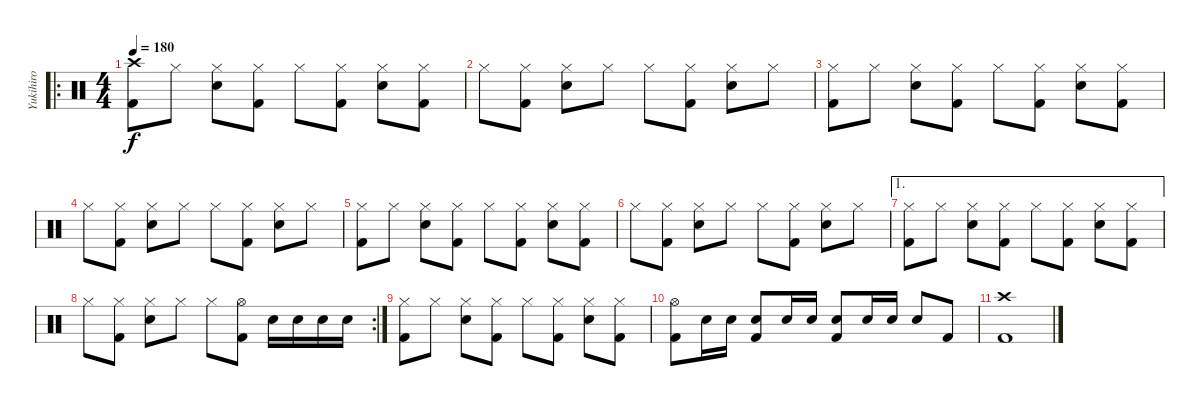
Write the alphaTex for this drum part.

\track ("Yukihiro" "Yukihiro") {instrument percussion}
\staff {score}
\articulation defaults
\ro
\ts (4 4)
\tempo 180
\clef neutral
\ks c
("Crash high (hit)" "Kick (hit) 2").8{dy f} "Hi-Hat (closed)".8 ("Hi-Hat (closed)" "Electric Snare (hit)").8 ("Hi-Hat (closed)" "Kick (hit) 2").8 "Hi-Hat (closed)".8 ("Hi-Hat (closed)" "Kick (hit) 2").8 ("Hi-Hat (closed)" "Electric Snare (hit)").8 ("Hi-Hat (closed)" "Kick (hit) 2").8 |
"Hi-Hat (closed)".8 ("Hi-Hat (closed)" "Kick (hit) 2").8 ("Hi-Hat (closed)" "Electric Snare (hit)").8 "Hi-Hat (closed)".8 "Hi-Hat (closed)".8 ("Hi-Hat (closed)" "Kick (hit) 2").8 ("Hi-Hat (closed)" "Electric Snare (hit)").8 "Hi-Hat (closed)".8 |
("Hi-Hat (closed)" "Kick (hit) 2").8 "Hi-Hat (closed)".8 ("Hi-Hat (closed)" "Electric Snare (hit)").8 ("Hi-Hat (closed)" "Kick (hit) 2").8 "Hi-Hat (closed)".8 ("Hi-Hat (closed)" "Kick (hit) 2").8 ("Hi-Hat (closed)" "Electric Snare (hit)").8 ("Hi-Hat (closed)" "Kick (hit) 2").8 |
"Hi-Hat (closed)".8 ("Hi-Hat (closed)" "Kick (hit) 2").8 ("Hi-Hat (closed)" "Electric Snare (hit)").8 "Hi-Hat (closed)".8 "Hi-Hat (closed)".8 ("Hi-Hat (closed)" "Kick (hit) 2").8 ("Hi-Hat (closed)" "Electric Snare (hit)").8 "Hi-Hat (closed)".8 |
("Hi-Hat (closed)" "Kick (hit) 2").8 "Hi-Hat (closed)".8 ("Hi-Hat (closed)" "Electric Snare (hit)").8 ("Hi-Hat (closed)" "Kick (hit) 2").8 "Hi-Hat (closed)".8 ("Hi-Hat (closed)" "Kick (hit) 2").8 ("Hi-Hat (closed)" "Electric Snare (hit)").8 ("Hi-Hat (closed)" "Kick (hit) 2").8 |
"Hi-Hat (closed)".8 ("Hi-Hat (closed)" "Kick (hit) 2").8 ("Hi-Hat (closed)" "Electric Snare (hit)").8 "Hi-Hat (closed)".8 "Hi-Hat (closed)".8 ("Hi-Hat (closed)" "Kick (hit) 2").8 ("Hi-Hat (closed)" "Electric Snare (hit)").8 "Hi-Hat (closed)".8 |
\ae 1
("Hi-Hat (closed)" "Kick (hit) 2").8 "Hi-Hat (closed)".8 ("Hi-Hat (closed)" "Electric Snare (hit)").8 ("Hi-Hat (closed)" "Kick (hit) 2").8 "Hi-Hat (closed)".8 ("Hi-Hat (closed)" "Kick (hit) 2").8 ("Hi-Hat (closed)" "Electric Snare (hit)").8 ("Hi-Hat (closed)" "Kick (hit) 2").8 |
\rc 2 "Hi-Hat (closed)".8
("Hi-Hat (closed)" "Kick (hit) 2").8 ("Hi-Hat (closed)" "Electric Snare (hit)").8 "Hi-Hat (closed)".8 "Hi-Hat (closed)".8 ("Hi-Hat (open)" "Kick (hit) 2").8 "Electric Snare (hit)".16 "Electric Snare (hit)".16 "Electric Snare (hit)".16 "Electric Snare (hit)".16 |
("Hi-Hat (closed)" "Kick (hit) 2").8 "Hi-Hat (closed)".8 ("Hi-Hat (closed)" "Electric Snare (hit)").8 ("Hi-Hat (closed)" "Kick (hit) 2").8 "Hi-Hat (closed)".8 ("Hi-Hat (closed)" "Kick (hit) 2").8 ("Hi-Hat (closed)" "Electric Snare (hit)").8 ("Hi-Hat (closed)" "Kick (hit) 2").8 |
("Hi-Hat (open)" "Kick (hit) 2").8 "Electric Snare (hit)".16 "Electric Snare (hit)".16 ("Electric Snare (hit)" "Kick (hit) 2").8 "Electric Snare (hit)".16 "Electric Snare (hit)".16 ("Electric Snare (hit)" "Kick (hit) 2").8 "Electric Snare (hit)".16 "Electric Snare (hit)".16 "Electric Snare (hit)".8 "Kick (hit) 2".8 |
("Crash high (hit)" "Kick (hit) 2").1
